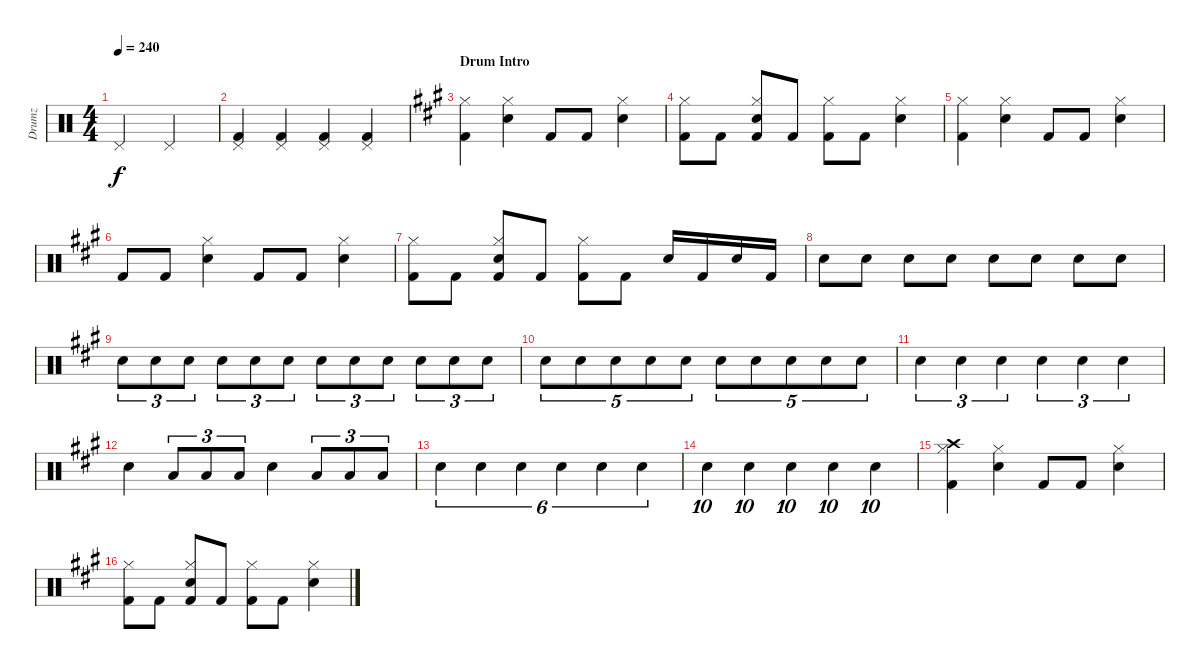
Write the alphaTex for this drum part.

\track ("Drumz" "Drumz") {instrument percussion}
\staff {score}
\articulation defaults
\ts (4 4)
\tempo 240
\clef neutral
\ks c "Pedal Hi-Hat (hit)".2{dy f} "Pedal Hi-Hat (hit)".2
|
("Pedal Hi-Hat (hit)" "Kick (hit) 2").4 ("Pedal Hi-Hat (hit)" "Kick (hit) 2").4 ("Pedal Hi-Hat (hit)" "Kick (hit) 2").4 ("Pedal Hi-Hat (hit)" "Kick (hit) 2").4 |
\section ("" "Drum Intro")
\ks a
("Hi-Hat (closed)" "Kick (hit) 2").4 ("Hi-Hat (closed)" "Electric Snare (hit)").4 "Kick (hit) 2".8 "Kick (hit) 2".8 ("Electric Snare (hit)" "Hi-Hat (closed)").4 |
("Hi-Hat (closed)" "Kick (hit) 2").8 "Kick (hit) 2".8 ("Hi-Hat (closed)" "Electric Snare (hit)" "Kick (hit) 2").8 "Kick (hit) 2".8 ("Hi-Hat (closed)" "Kick (hit) 2").8 "Kick (hit) 2".8 ("Hi-Hat (closed)" "Electric Snare (hit)").4 |
("Hi-Hat (closed)" "Kick (hit) 2").4 ("Hi-Hat (closed)" "Electric Snare (hit)").4 "Kick (hit) 2".8 "Kick (hit) 2".8 ("Electric Snare (hit)" "Hi-Hat (closed)").4 |
"Kick (hit) 2".8 "Kick (hit) 2".8 ("Hi-Hat (closed)" "Electric Snare (hit)").4 "Kick (hit) 2".8 "Kick (hit) 2".8 ("Electric Snare (hit)" "Hi-Hat (closed)").4 |
("Hi-Hat (closed)" "Kick (hit) 2").8 "Kick (hit) 2".8 ("Hi-Hat (closed)" "Electric Snare (hit)" "Kick (hit) 2").8 "Kick (hit) 2".8 ("Hi-Hat (closed)" "Kick (hit) 2").8 "Kick (hit) 2".8 "Electric Snare (hit)".16 "Kick (hit) 2".16 "Electric Snare (hit)".16 "Kick (hit) 2".16 |
"Electric Snare (hit)".8 "Electric Snare (hit)".8 "Electric Snare (hit)".8 "Electric Snare (hit)".8 "Electric Snare (hit)".8 "Electric Snare (hit)".8 "Electric Snare (hit)".8 "Electric Snare (hit)".8 |
"Electric Snare (hit)".8{tu (3 2)} "Electric Snare (hit)".8{tu (3 2)} "Electric Snare (hit)".8{tu (3 2)} "Electric Snare (hit)".8{tu (3 2)} "Electric Snare (hit)".8{tu (3 2)} "Electric Snare (hit)".8{tu (3 2)} "Electric Snare (hit)".8{tu (3 2)} "Electric Snare (hit)".8{tu (3 2)} "Electric Snare (hit)".8{tu (3 2)} "Electric Snare (hit)".8{tu (3 2)} "Electric Snare (hit)".8{tu (3 2)} "Electric Snare (hit)".8{tu (3 2)} |
"Electric Snare (hit)".8{tu (5 4)} "Electric Snare (hit)".8{tu (5 4)} "Electric Snare (hit)".8{tu (5 4)} "Electric Snare (hit)".8{tu (5 4)} "Electric Snare (hit)".8{tu (5 4)} "Electric Snare (hit)".8{tu (5 4)} "Electric Snare (hit)".8{tu (5 4)} "Electric Snare (hit)".8{tu (5 4)} "Electric Snare (hit)".8{tu (5 4)} "Electric Snare (hit)".8{tu (5 4)} |
"Electric Snare (hit)".4{tu (3 2)} "Electric Snare (hit)".4{tu (3 2)} "Electric Snare (hit)".4{tu (3 2)} "Electric Snare (hit)".4{tu (3 2)} "Electric Snare (hit)".4{tu (3 2)} "Electric Snare (hit)".4{tu (3 2)} |
"Electric Snare (hit)".4 "Low Tom (hit)".8{tu (3 2)} "Low Tom (hit)".8{tu (3 2)} "Low Tom (hit)".8{tu (3 2)} "Electric Snare (hit)".4 "Low Tom (hit)".8{tu (3 2)} "Low Tom (hit)".8{tu (3 2)} "Low Tom (hit)".8{tu (3 2)} |
"Electric Snare (hit)".4{tu (6 4)} "Electric Snare (hit)".4{tu (6 4)} "Electric Snare (hit)".4{tu (6 4)} "Electric Snare (hit)".4{tu (6 4)} "Electric Snare (hit)".4{tu (6 4)} "Electric Snare (hit)".4{tu (6 4)} |
"Electric Snare (hit)".4{tu (10 8)} "Electric Snare (hit)".4{tu (10 8)} "Electric Snare (hit)".4{tu (10 8)} "Electric Snare (hit)".4{tu (10 8)} "Electric Snare (hit)".4{tu (10 8)} |
("Hi-Hat (closed)" "Crash high (hit)" "Kick (hit) 2").4 ("Hi-Hat (closed)" "Electric Snare (hit)").4 "Kick (hit) 2".8 "Kick (hit) 2".8 ("Electric Snare (hit)" "Hi-Hat (closed)").4 |
("Hi-Hat (closed)" "Kick (hit) 2").8 "Kick (hit) 2".8 ("Hi-Hat (closed)" "Electric Snare (hit)" "Kick (hit) 2").8 "Kick (hit) 2".8 ("Hi-Hat (closed)" "Kick (hit) 2").8 "Kick (hit) 2".8 ("Hi-Hat (closed)" "Electric Snare (hit)").4
